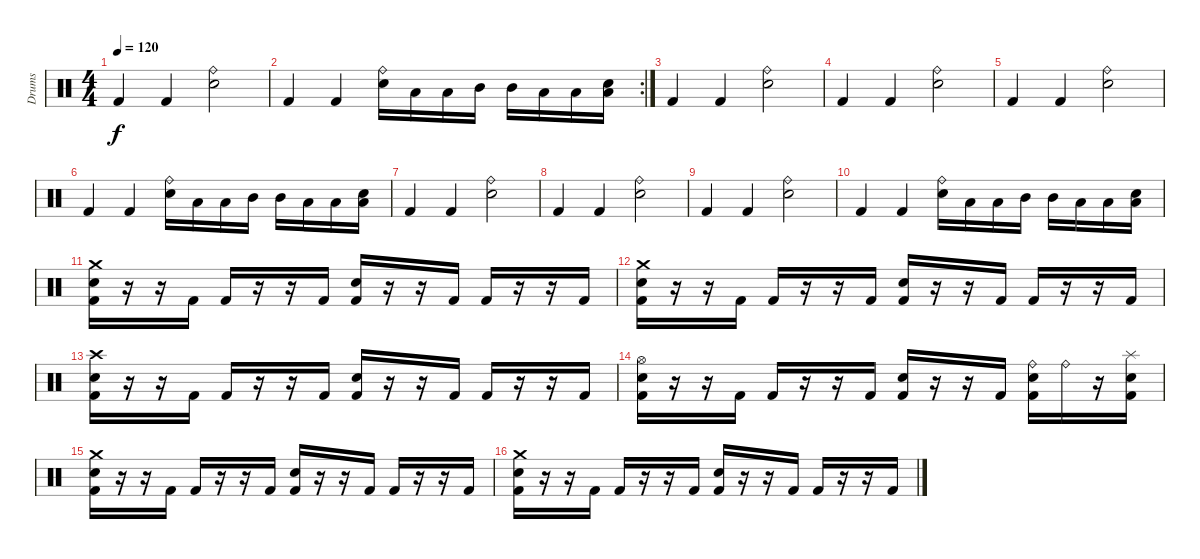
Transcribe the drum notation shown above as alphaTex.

\track ("Drums" "Drums") {instrument percussion}
\staff {score}
\articulation defaults
\ts (4 4)
\tempo 120
\clef neutral
\ks c "Kick (hit) 2".4{dy f} "Kick (hit) 2".4
("Ride (bell)" "Electric Snare (hit)").2 |
\rc 2 "Kick (hit) 2".4 "Kick (hit) 2".4
("Ride (bell)" "Electric Snare (hit)").16 "Low Tom (hit)".16 "Low Tom (hit)".16 "Mid Tom (hit)".16 "Mid Tom (hit)".16 "Low Floor Tom (hit)".16 "Low Floor Tom (hit)".16 ("Low Tom (hit)" "Electric Snare (hit)").16 |
"Kick (hit) 2".4 "Kick (hit) 2".4 ("Ride (bell)" "Electric Snare (hit)").2 |
"Kick (hit) 2".4 "Kick (hit) 2".4 ("Ride (bell)" "Electric Snare (hit)").2 |
"Kick (hit) 2".4 "Kick (hit) 2".4 ("Ride (bell)" "Electric Snare (hit)").2 |
"Kick (hit) 2".4 "Kick (hit) 2".4 ("Ride (bell)" "Electric Snare (hit)").16 "Low Tom (hit)".16 "Low Tom (hit)".16 "Mid Tom (hit)".16 "Mid Tom (hit)".16 "Low Floor Tom (hit)".16 "Low Floor Tom (hit)".16 ("Low Tom (hit)" "Electric Snare (hit)").16 |
"Kick (hit) 2".4 "Kick (hit) 2".4 ("Ride (bell)" "Electric Snare (hit)").2 |
"Kick (hit) 2".4 "Kick (hit) 2".4 ("Ride (bell)" "Electric Snare (hit)").2 |
"Kick (hit) 2".4 "Kick (hit) 2".4 ("Ride (bell)" "Electric Snare (hit)").2 |
"Kick (hit) 2".4 "Kick (hit) 2".4 ("Ride (bell)" "Electric Snare (hit)").16 "Low Tom (hit)".16 "Low Tom (hit)".16 "Mid Tom (hit)".16 "Mid Tom (hit)".16 "Low Floor Tom (hit)".16 "Low Floor Tom (hit)".16 ("Low Tom (hit)" "Electric Snare (hit)").16 |
("Crash medium (hit)" "Electric Snare (hit)" "Kick (hit) 2").16 r.16 r.16 "Kick (hit) 2".16 "Kick (hit) 2".16 r.16 r.16 "Kick (hit) 2".16 ("Electric Snare (hit)" "Kick (hit) 2").16 r.16 r.16 "Kick (hit) 2".16 "Kick (hit) 2".16 r.16 r.16 "Kick (hit) 2".16 |
("Crash medium (hit)" "Electric Snare (hit)" "Kick (hit) 2").16 r.16 r.16 "Kick (hit) 2".16 "Kick (hit) 2".16 r.16 r.16 "Kick (hit) 2".16 ("Electric Snare (hit)" "Kick (hit) 2").16 r.16 r.16 "Kick (hit) 2".16 "Kick (hit) 2".16 r.16 r.16 "Kick (hit) 2".16 |
("Crash high (hit)" "Electric Snare (hit)" "Kick (hit) 2").16 r.16 r.16 "Kick (hit) 2".16 "Kick (hit) 2".16 r.16 r.16 "Kick (hit) 2".16 ("Electric Snare (hit)" "Kick (hit) 2").16 r.16 r.16 "Kick (hit) 2".16 "Kick (hit) 2".16 r.16 r.16 "Kick (hit) 2".16 |
("Hi-Hat (open)" "Electric Snare (hit)" "Kick (hit) 2").16 r.16 r.16 "Kick (hit) 2".16 "Kick (hit) 2".16 r.16 r.16 "Kick (hit) 2".16 ("Electric Snare (hit)" "Kick (hit) 2").16 r.16 r.16 "Kick (hit) 2".16 ("Ride (bell)" "Electric Snare (hit)" "Kick (hit) 2").16 "Ride (bell)".16 r.16 ("Splash (hit)" "Electric Snare (hit)" "Kick (hit) 2").16 |
("Crash medium (hit)" "Electric Snare (hit)" "Kick (hit) 2").16 r.16 r.16 "Kick (hit) 2".16 "Kick (hit) 2".16 r.16 r.16 "Kick (hit) 2".16 ("Electric Snare (hit)" "Kick (hit) 2").16 r.16 r.16 "Kick (hit) 2".16 "Kick (hit) 2".16 r.16 r.16 "Kick (hit) 2".16 |
("Crash medium (hit)" "Electric Snare (hit)" "Kick (hit) 2").16 r.16 r.16 "Kick (hit) 2".16 "Kick (hit) 2".16 r.16 r.16 "Kick (hit) 2".16 ("Electric Snare (hit)" "Kick (hit) 2").16 r.16 r.16 "Kick (hit) 2".16 "Kick (hit) 2".16 r.16 r.16 "Kick (hit) 2".16
